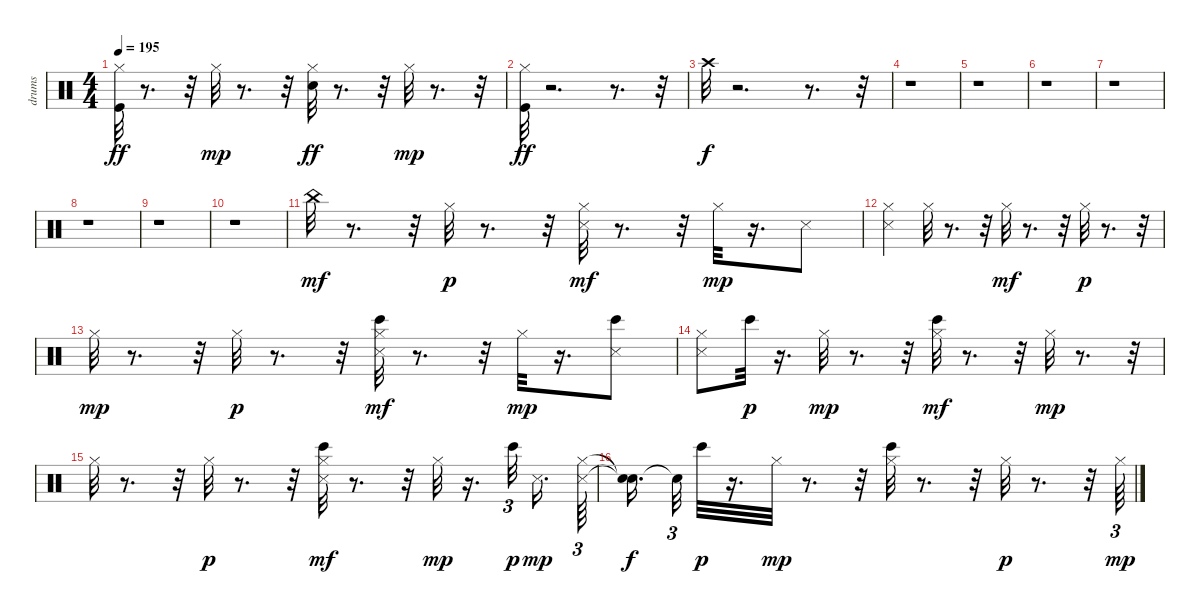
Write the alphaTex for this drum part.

\track ("drums" "drums") {instrument percussion}
\staff {score}
\articulation defaults
\ts (4 4)
\tempo 195
\clef neutral
\ks c
("Kick (hit)" "Hi-Hat (closed)").32{dy ff} r.8{d} r.32 "Hi-Hat (closed)".32{dy mp} r.8{d} r.32 ("Snare (hit) 2" "Hi-Hat (closed)").32{dy ff} r.8{d} r.32 "Hi-Hat (closed)".32{dy mp} r.8{d} r.32 |
("Hi-Hat (closed)" "Kick (hit)").32{dy ff} r.2{d} r.8{d} r.32 |
"Crash high (hit)".32{dy f} r.2{d} r.8{d} r.32 |
r.1 |
r.1 |
r.1 |
r.1 |
r.1 |
r.1 |
r.1 |
"China (hit)".32{dy mf} r.8{d} r.32 "Hi-Hat (closed)".32{dy p} r.8{d} r.32 ("Snare (side stick) 3" "Hi-Hat (closed)").32{dy mf} r.8{d} r.32 "Hi-Hat (closed)".32{dy mp} r.16{d} "Snare (side stick) 3".8 |
("Snare (side stick) 3" "Hi-Hat (closed)").4 "Hi-Hat (closed)".32 r.8{d} r.32 "Hi-Hat (closed)".32{dy mf} r.8{d} r.32 "Hi-Hat (closed)".32{dy p} r.8{d} r.32 |
"Hi-Hat (closed)".32{dy mp} r.8{d} r.32 "Hi-Hat (closed)".32{dy p} r.8{d} r.32 ("Bongo High (hit)" "Snare (side stick) 3" "Hi-Hat (closed)").32{dy mf} r.8{d} r.32 "Hi-Hat (closed)".32{dy mp} r.16{d} ("Bongo High (hit)" "Snare (side stick) 3").8 |
("Snare (side stick) 3" "Hi-Hat (closed)").8 "Bongo High (hit)".32{dy p} r.16{d} "Hi-Hat (closed)".32{dy mp} r.8{d} r.32 ("Bongo High (hit)" "Hi-Hat (closed)").32{dy mf} r.8{d} r.32 "Hi-Hat (closed)".32{dy mp} r.8{d} r.32 |
"Hi-Hat (closed)".32 r.8{d} r.32 "Hi-Hat (closed)".32{dy p} r.8{d} r.32 ("Bongo High (hit)" "Hi-Hat (closed)" "Snare (side stick) 3").32{dy mf} r.8{d} r.32 "Hi-Hat (closed)".32{dy mp} r.16{d} "Bongo High (hit)".32{tu (3 2) dy p beam splitsecondary} "Snare (side stick) 3".16{d dy mp} ("Snare (side stick) 3" "Hi-Hat (closed)").64{tu (3 2)} |
("Snare (hit)"{t} "Snare (hit)"{t}).16{d dy f beam splitsecondary} "Snare (hit)"{t}.32{tu (3 2)} "Bongo High (hit)".32{dy p} r.16{d} "Hi-Hat (closed)".32{dy mp} r.8{d} r.32 ("Hi-Hat (closed)" "Bongo High (hit)").32 r.8{d} r.32 "Hi-Hat (closed)".32{dy p} r.8{d} r.32 "Hi-Hat (closed)".64{tu (3 2) dy mp}
